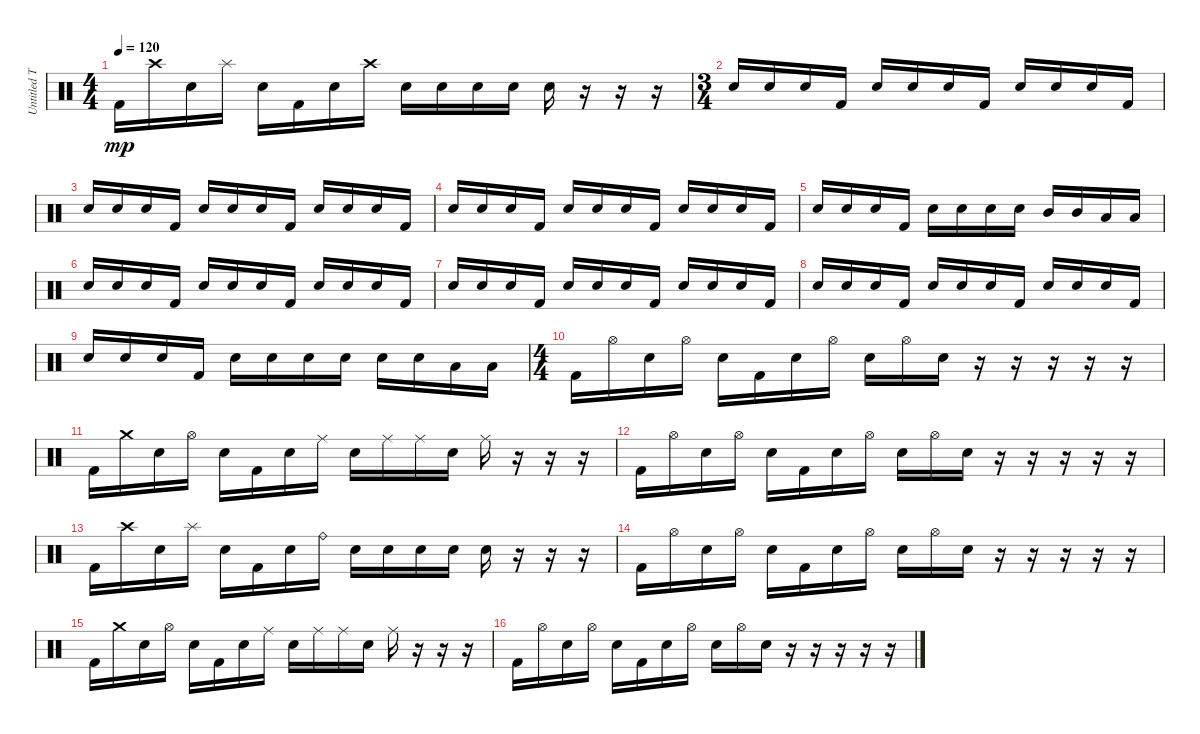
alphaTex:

\track ("Untitled Track" "Untitled T") {instrument percussion}
\staff {score}
\articulation defaults
\ts (4 4)
\tempo 120
\clef neutral
\ks c "Kick (hit) 2".16{dy mp} "Crash high (hit)".16 "Snare (hit) 2".16 "Splash (hit)".16 "Snare (hit) 2".16 "Kick (hit) 2".16 "Snare (hit) 2".16 "Crash high (hit)".16 "Snare (hit) 2".16 "Snare (hit) 2".16 "Snare (hit) 2".16 "Snare (hit) 2".16 "Snare (hit) 2".16
r.16 r.16 r.16 |
\ts (3 4)
"Snare (hit) 2".16 "Snare (hit) 2".16 "Snare (hit) 2".16 "Kick (hit) 2".16 "Snare (hit) 2".16 "Snare (hit) 2".16 "Snare (hit) 2".16 "Kick (hit) 2".16 "Snare (hit) 2".16 "Snare (hit) 2".16 "Snare (hit) 2".16 "Kick (hit) 2".16 |
"Snare (hit) 2".16 "Snare (hit) 2".16 "Snare (hit) 2".16 "Kick (hit) 2".16 "Snare (hit) 2".16 "Snare (hit) 2".16 "Snare (hit) 2".16 "Kick (hit) 2".16 "Snare (hit) 2".16 "Snare (hit) 2".16 "Snare (hit) 2".16 "Kick (hit) 2".16 |
"Snare (hit) 2".16 "Snare (hit) 2".16 "Snare (hit) 2".16 "Kick (hit) 2".16 "Snare (hit) 2".16 "Snare (hit) 2".16 "Snare (hit) 2".16 "Kick (hit) 2".16 "Snare (hit) 2".16 "Snare (hit) 2".16 "Snare (hit) 2".16 "Kick (hit) 2".16 |
"Snare (hit) 2".16 "Snare (hit) 2".16 "Snare (hit) 2".16 "Kick (hit) 2".16 "Snare (hit) 2".16 "Snare (hit) 2".16 "Snare (hit) 2".16 "Snare (hit) 2".16 "Mid Tom (hit)".16 "Mid Tom (hit)".16 "Low Tom (hit)".16 "Low Tom (hit)".16 |
"Snare (hit) 2".16 "Snare (hit) 2".16 "Snare (hit) 2".16 "Kick (hit) 2".16 "Snare (hit) 2".16 "Snare (hit) 2".16 "Snare (hit) 2".16 "Kick (hit) 2".16 "Snare (hit) 2".16 "Snare (hit) 2".16 "Snare (hit) 2".16 "Kick (hit) 2".16 |
"Snare (hit) 2".16 "Snare (hit) 2".16 "Snare (hit) 2".16 "Kick (hit) 2".16 "Snare (hit) 2".16 "Snare (hit) 2".16 "Snare (hit) 2".16 "Kick (hit) 2".16 "Snare (hit) 2".16 "Snare (hit) 2".16 "Snare (hit) 2".16 "Kick (hit) 2".16 |
"Snare (hit) 2".16 "Snare (hit) 2".16 "Snare (hit) 2".16 "Kick (hit) 2".16 "Snare (hit) 2".16 "Snare (hit) 2".16 "Snare (hit) 2".16 "Kick (hit) 2".16 "Snare (hit) 2".16 "Snare (hit) 2".16 "Snare (hit) 2".16 "Kick (hit) 2".16 |
"Snare (hit) 2".16 "Snare (hit) 2".16 "Snare (hit) 2".16 "Kick (hit) 2".16 "Snare (hit) 2".16 "Snare (hit) 2".16 "Snare (hit) 2".16 "Snare (hit) 2".16 "Snare (hit) 2".16 "Snare (hit) 2".16 "Low Tom (hit)".16 "Low Tom (hit)".16 |
\ts (4 4)
"Kick (hit) 2".16 "Hi-Hat (open)".16 "Snare (hit) 2".16 "Hi-Hat (open)".16 "Snare (hit) 2".16 "Kick (hit) 2".16 "Snare (hit) 2".16 "Hi-Hat (open)".16 "Snare (hit) 2".16 "Hi-Hat (open)".16 "Snare (hit) 2".16 r.16 r.16 r.16 r.16 r.16 |
"Kick (hit) 2".16 "Crash medium (hit)".16 "Snare (hit) 2".16 "Hi-Hat (open)".16 "Snare (hit) 2".16 "Kick (hit) 2".16 "Snare (hit) 2".16 "Ride (middle)".16 "Snare (hit) 2".16 "Ride (middle)".16 "Ride (middle)".16 "Snare (hit) 2".16 "Ride (middle)".16 r.16 r.16 r.16 |
"Kick (hit) 2".16 "Hi-Hat (open)".16 "Snare (hit) 2".16 "Hi-Hat (open)".16 "Snare (hit) 2".16 "Kick (hit) 2".16 "Snare (hit) 2".16 "Hi-Hat (open)".16 "Snare (hit) 2".16 "Hi-Hat (open)".16 "Snare (hit) 2".16 r.16 r.16 r.16 r.16 r.16 |
"Kick (hit) 2".16 "Crash high (hit)".16 "Snare (hit) 2".16 "Splash (hit)".16 "Snare (hit) 2".16 "Kick (hit) 2".16 "Snare (hit) 2".16 "Ride (bell)".16 "Snare (hit) 2".16 "Snare (hit) 2".16 "Snare (hit) 2".16 "Snare (hit) 2".16 "Snare (hit) 2".16 r.16 r.16 r.16 |
"Kick (hit) 2".16 "Hi-Hat (open)".16 "Snare (hit) 2".16 "Hi-Hat (open)".16 "Snare (hit) 2".16 "Kick (hit) 2".16 "Snare (hit) 2".16 "Hi-Hat (open)".16 "Snare (hit) 2".16 "Hi-Hat (open)".16 "Snare (hit) 2".16 r.16 r.16 r.16 r.16 r.16 |
"Kick (hit) 2".16 "Crash medium (hit)".16 "Snare (hit) 2".16 "Hi-Hat (open)".16 "Snare (hit) 2".16 "Kick (hit) 2".16 "Snare (hit) 2".16 "Ride (middle)".16 "Snare (hit) 2".16 "Ride (middle)".16 "Ride (middle)".16 "Snare (hit) 2".16 "Ride (middle)".16 r.16 r.16 r.16 |
"Kick (hit) 2".16 "Hi-Hat (open)".16 "Snare (hit) 2".16 "Hi-Hat (open)".16 "Snare (hit) 2".16 "Kick (hit) 2".16 "Snare (hit) 2".16 "Hi-Hat (open)".16 "Snare (hit) 2".16 "Hi-Hat (open)".16 "Snare (hit) 2".16 r.16 r.16 r.16 r.16 r.16
